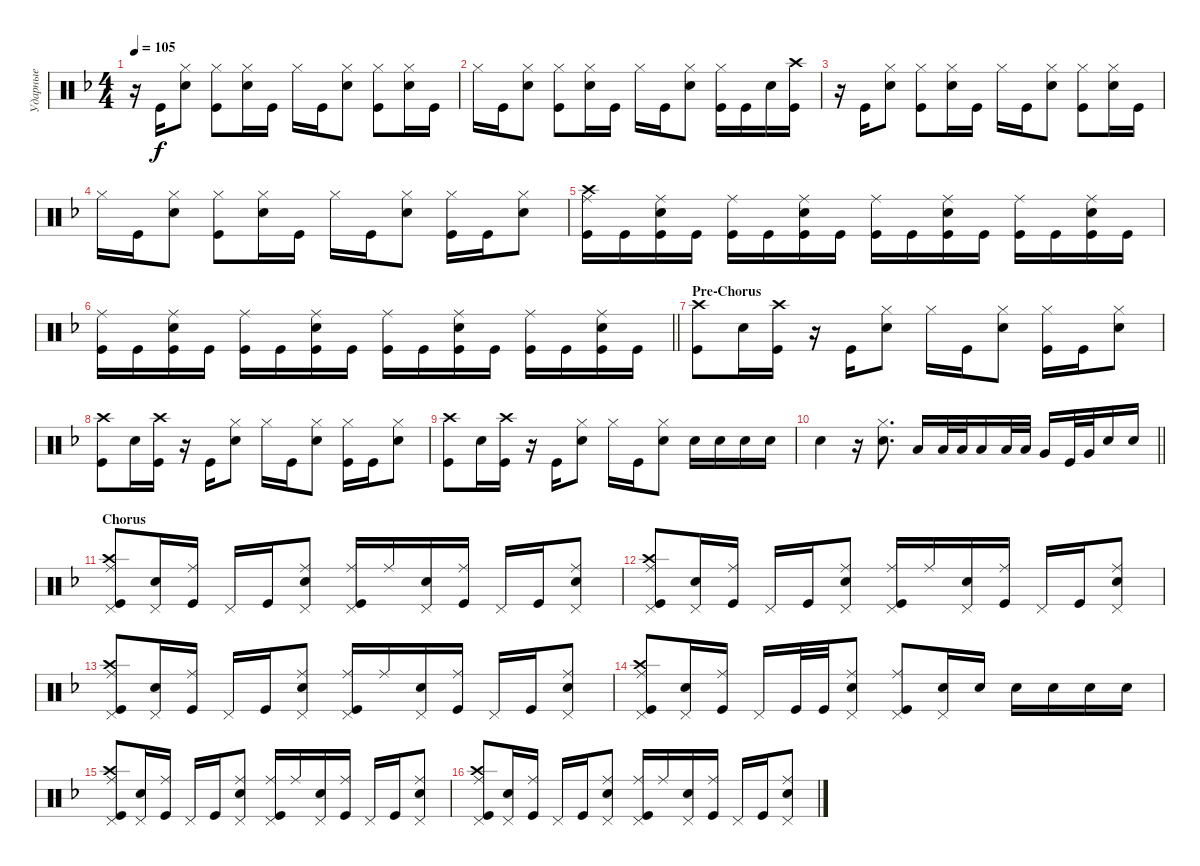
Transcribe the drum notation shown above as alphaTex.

\track ("Ударные" "Ударные") {instrument percussion}
\staff {score}
\articulation defaults
\ts (4 4)
\tempo 105
\clef neutral
\ks dminor
r.16{dy f} "Kick (hit)".16 ("Snare (hit) 2" "Hi-Hat (closed)").8 ("Hi-Hat (closed)" "Kick (hit)").8 ("Snare (hit) 2" "Hi-Hat (closed)").16 "Kick (hit)".16 "Hi-Hat (closed)".16 "Kick (hit)".16 ("Snare (hit) 2" "Hi-Hat (closed)").8 ("Hi-Hat (closed)" "Kick (hit)").8 ("Snare (hit) 2" "Hi-Hat (closed)").16 "Kick (hit)".16 |
"Hi-Hat (closed)".16 "Kick (hit)".16 ("Snare (hit) 2" "Hi-Hat (closed)").8 ("Hi-Hat (closed)" "Kick (hit)").8 ("Snare (hit) 2" "Hi-Hat (closed)").16 "Kick (hit)".16 "Hi-Hat (closed)".16 "Kick (hit)".16 ("Snare (hit) 2" "Hi-Hat (closed)").8 ("Hi-Hat (closed)" "Kick (hit)").16 "Kick (hit)".16 "Snare (hit) 2".16 ("Kick (hit)" "Crash high (hit)").16 |
r.16 "Kick (hit)".16 ("Snare (hit) 2" "Hi-Hat (closed)").8 ("Hi-Hat (closed)" "Kick (hit)").8 ("Snare (hit) 2" "Hi-Hat (closed)").16 "Kick (hit)".16 "Hi-Hat (closed)".16 "Kick (hit)".16 ("Snare (hit) 2" "Hi-Hat (closed)").8 ("Hi-Hat (closed)" "Kick (hit)").8 ("Snare (hit) 2" "Hi-Hat (closed)").16 "Kick (hit)".16 |
"Hi-Hat (closed)".16 "Kick (hit)".16 ("Snare (hit) 2" "Hi-Hat (closed)").8 ("Hi-Hat (closed)" "Kick (hit)").8 ("Snare (hit) 2" "Hi-Hat (closed)").16 "Kick (hit)".16 "Hi-Hat (closed)".16 "Kick (hit)".16 ("Snare (hit) 2" "Hi-Hat (closed)").8 ("Hi-Hat (closed)" "Kick (hit)").16 "Kick (hit)".16 ("Snare (hit) 2" "Hi-Hat (closed)").8 |
("Kick (hit)" "Crash high (hit)" "Ride (middle)").16 "Kick (hit)".16 ("Kick (hit)" "Snare (hit) 2" "Ride (middle)").16 "Kick (hit)".16 ("Kick (hit)" "Ride (middle)").16 "Kick (hit)".16 ("Kick (hit)" "Snare (hit) 2" "Ride (middle)").16 "Kick (hit)".16 ("Kick (hit)" "Ride (middle)").16 "Kick (hit)".16 ("Kick (hit)" "Snare (hit) 2" "Ride (middle)").16 "Kick (hit)".16 ("Kick (hit)" "Ride (middle)").16 "Kick (hit)".16 ("Kick (hit)" "Snare (hit) 2" "Ride (middle)").16 "Kick (hit)".16 |
\barLineRight lightlight
("Kick (hit)" "Ride (middle)").16 "Kick (hit)".16 ("Kick (hit)" "Snare (hit) 2" "Ride (middle)").16 "Kick (hit)".16 ("Kick (hit)" "Ride (middle)").16 "Kick (hit)".16 ("Kick (hit)" "Snare (hit) 2" "Ride (middle)").16 "Kick (hit)".16 ("Kick (hit)" "Ride (middle)").16 "Kick (hit)".16 ("Kick (hit)" "Snare (hit) 2" "Ride (middle)").16 "Kick (hit)".16 ("Kick (hit)" "Ride (middle)").16 "Kick (hit)".16 ("Kick (hit)" "Snare (hit) 2" "Ride (middle)").16 "Kick (hit)".16 |
\section ("" "Pre-Chorus")
("Kick (hit)" "Crash high (hit)").8 "Snare (hit) 2".16 ("Kick (hit)" "Crash high (hit)").16 r.16 "Kick (hit)".16 ("Snare (hit) 2" "Hi-Hat (closed)").8 "Hi-Hat (closed)".16 "Kick (hit)".16 ("Snare (hit) 2" "Hi-Hat (closed)").8 ("Kick (hit)" "Hi-Hat (closed)").16 "Kick (hit)".16 ("Snare (hit) 2" "Hi-Hat (closed)").8 |
("Kick (hit)" "Crash high (hit)").8 "Snare (hit) 2".16 ("Kick (hit)" "Crash high (hit)").16 r.16 "Kick (hit)".16 ("Snare (hit) 2" "Hi-Hat (closed)").8 "Hi-Hat (closed)".16 "Kick (hit)".16 ("Snare (hit) 2" "Hi-Hat (closed)").8 ("Kick (hit)" "Hi-Hat (closed)").16 "Kick (hit)".16 ("Snare (hit) 2" "Hi-Hat (closed)").8 |
("Kick (hit)" "Crash high (hit)").8 "Snare (hit) 2".16 ("Kick (hit)" "Crash high (hit)").16 r.16 "Kick (hit)".16 ("Snare (hit) 2" "Hi-Hat (closed)").8 "Hi-Hat (closed)".16 "Kick (hit)".16 ("Snare (hit) 2" "Hi-Hat (closed)").8 "Snare (hit) 2".16 "Snare (hit) 2".16 "Snare (hit) 2".16 "Snare (hit) 2".16 |
\barLineRight lightlight "Snare (hit) 2".4
r.16 ("Snare (hit) 2" "Hi-Hat (closed)").8{d} "Low Tom (hit)".16 "Low Floor Tom (hit)".32 "Low Floor Tom (hit)".32 "Low Floor Tom (hit)".16 "Low Floor Tom (hit)".32 "Low Floor Tom (hit)".32 "Very Low Tom (hit)".16 "Kick (hit)".32 "Very Low Tom (hit)".32 "Snare (hit) 2".16 "Snare (hit) 2".16 |
\section ("" "Chorus")
("Kick (hit)" "Crash high (hit)" "Ride (middle)" "Pedal Hi-Hat (hit)").8 ("Snare (hit) 2" "Pedal Hi-Hat (hit)").16 ("Ride (middle)" "Kick (hit)").16 "Pedal Hi-Hat (hit)".16 "Kick (hit)".16 ("Snare (hit) 2" "Ride (middle)" "Pedal Hi-Hat (hit)").8 ("Ride (middle)" "Kick (hit)" "Pedal Hi-Hat (hit)").16 "Ride (middle)".16 ("Snare (hit) 2" "Pedal Hi-Hat (hit)").16 ("Kick (hit)" "Ride (middle)").16 "Pedal Hi-Hat (hit)".16 "Kick (hit)".16 ("Snare (hit) 2" "Ride (middle)" "Pedal Hi-Hat (hit)").8 |
("Kick (hit)" "Crash high (hit)" "Ride (middle)" "Pedal Hi-Hat (hit)").8 ("Snare (hit) 2" "Pedal Hi-Hat (hit)").16 ("Ride (middle)" "Kick (hit)").16 "Pedal Hi-Hat (hit)".16 "Kick (hit)".16 ("Snare (hit) 2" "Ride (middle)" "Pedal Hi-Hat (hit)").8 ("Ride (middle)" "Kick (hit)" "Pedal Hi-Hat (hit)").16 "Ride (middle)".16 ("Snare (hit) 2" "Pedal Hi-Hat (hit)").16 ("Kick (hit)" "Ride (middle)").16 "Pedal Hi-Hat (hit)".16 "Kick (hit)".16 ("Snare (hit) 2" "Ride (middle)" "Pedal Hi-Hat (hit)").8 |
("Kick (hit)" "Crash high (hit)" "Ride (middle)" "Pedal Hi-Hat (hit)").8 ("Snare (hit) 2" "Pedal Hi-Hat (hit)").16 ("Ride (middle)" "Kick (hit)").16 "Pedal Hi-Hat (hit)".16 "Kick (hit)".16 ("Snare (hit) 2" "Ride (middle)" "Pedal Hi-Hat (hit)").8 ("Ride (middle)" "Kick (hit)" "Pedal Hi-Hat (hit)").16 "Ride (middle)".16 ("Snare (hit) 2" "Pedal Hi-Hat (hit)").16 ("Kick (hit)" "Ride (middle)").16 "Pedal Hi-Hat (hit)".16 "Kick (hit)".16 ("Snare (hit) 2" "Ride (middle)" "Pedal Hi-Hat (hit)").8 |
("Kick (hit)" "Crash high (hit)" "Ride (middle)" "Pedal Hi-Hat (hit)").8 ("Snare (hit) 2" "Pedal Hi-Hat (hit)").16 ("Ride (middle)" "Kick (hit)").16 "Pedal Hi-Hat (hit)".16 "Kick (hit)".32 "Kick (hit)".32 ("Snare (hit) 2" "Ride (middle)" "Pedal Hi-Hat (hit)").8 ("Ride (middle)" "Kick (hit)" "Pedal Hi-Hat (hit)").8 ("Snare (hit) 2" "Pedal Hi-Hat (hit)").16 "Snare (hit) 2".16 "Snare (hit) 2".16 "Snare (hit) 2".16 "Snare (hit) 2".16 "Snare (hit) 2".16 |
("Kick (hit)" "Crash high (hit)" "Ride (middle)" "Pedal Hi-Hat (hit)").8 ("Snare (hit) 2" "Pedal Hi-Hat (hit)").16 ("Ride (middle)" "Kick (hit)").16 "Pedal Hi-Hat (hit)".16 "Kick (hit)".16 ("Snare (hit) 2" "Ride (middle)" "Pedal Hi-Hat (hit)").8 ("Ride (middle)" "Kick (hit)" "Pedal Hi-Hat (hit)").16 "Ride (middle)".16 ("Snare (hit) 2" "Pedal Hi-Hat (hit)").16 ("Kick (hit)" "Ride (middle)").16 "Pedal Hi-Hat (hit)".16 "Kick (hit)".16 ("Snare (hit) 2" "Ride (middle)" "Pedal Hi-Hat (hit)").8 |
("Kick (hit)" "Crash high (hit)" "Ride (middle)" "Pedal Hi-Hat (hit)").8 ("Snare (hit) 2" "Pedal Hi-Hat (hit)").16 ("Ride (middle)" "Kick (hit)").16 "Pedal Hi-Hat (hit)".16 "Kick (hit)".16 ("Snare (hit) 2" "Ride (middle)" "Pedal Hi-Hat (hit)").8 ("Ride (middle)" "Kick (hit)" "Pedal Hi-Hat (hit)").16 "Ride (middle)".16 ("Snare (hit) 2" "Pedal Hi-Hat (hit)").16 ("Kick (hit)" "Ride (middle)").16 "Pedal Hi-Hat (hit)".16 "Kick (hit)".16 ("Snare (hit) 2" "Ride (middle)" "Pedal Hi-Hat (hit)").8
